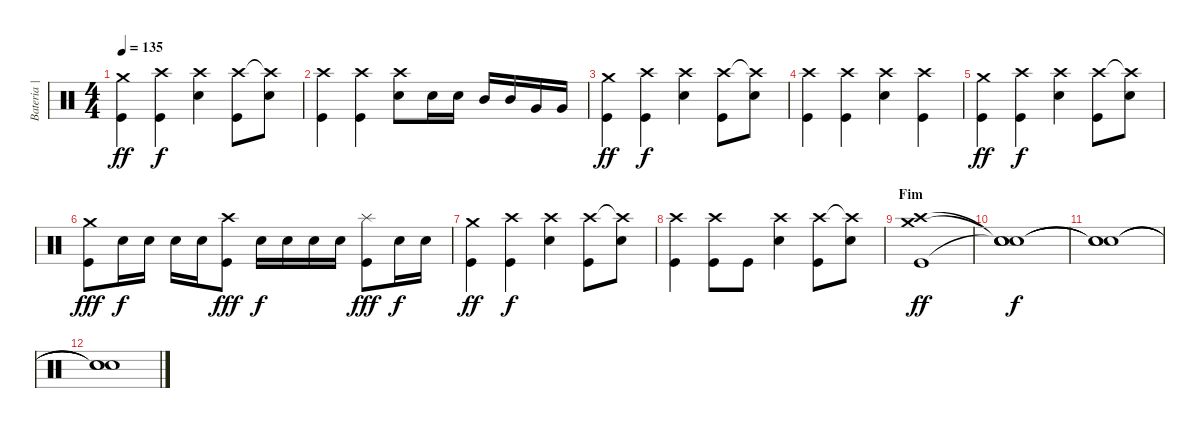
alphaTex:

\track ("Bateria | Bernardo" "Bateria | ") {instrument percussion}
\staff {score}
\articulation defaults
\ts (4 4)
\tempo 135
\clef neutral
\ks c
("Crash medium (hit)" "Kick (hit)").4{dy ff} ("Crash high (hit)" "Kick (hit)").4{dy f} ("Crash high (hit)" "Snare (hit) 2").4 ("Crash high (hit)" "Kick (hit)").8 ("Crash high (hit)"{t} "Snare (hit) 2").8 |
("Crash high (hit)" "Kick (hit)").4 ("Crash high (hit)" "Kick (hit)").4 ("Crash high (hit)" "Snare (hit) 2").8 "Snare (hit) 2".16 "Snare (hit) 2".16 "Mid Tom (hit)".16 "Mid Tom (hit)".16 "Very Low Tom (hit)".16 "Very Low Tom (hit)".16 |
("Crash medium (hit)" "Kick (hit)").4{dy ff} ("Crash high (hit)" "Kick (hit)").4{dy f} ("Crash high (hit)" "Snare (hit) 2").4 ("Crash high (hit)" "Kick (hit)").8 ("Crash high (hit)"{t} "Snare (hit) 2").8 |
("Crash high (hit)" "Kick (hit)").4 ("Crash high (hit)" "Kick (hit)").4 ("Crash high (hit)" "Snare (hit) 2").4 ("Crash high (hit)" "Kick (hit)").4 |
("Crash medium (hit)" "Kick (hit)").4{dy ff} ("Crash high (hit)" "Kick (hit)").4{dy f} ("Crash high (hit)" "Snare (hit) 2").4 ("Crash high (hit)" "Kick (hit)").8 ("Crash high (hit)"{t} "Snare (hit) 2").8 |
("Crash medium (hit)" "Kick (hit)").8{dy fff} "Snare (hit) 2".16{dy f} "Snare (hit) 2".16 "Snare (hit) 2".16 "Snare (hit) 2".16 ("Crash high (hit)" "Kick (hit)").8{dy fff} "Snare (hit) 2".16{dy f} "Snare (hit) 2".16 "Snare (hit) 2".16 "Snare (hit) 2".16 ("Splash (hit)" "Kick (hit)").8{dy fff} "Snare (hit) 2".16{dy f} "Snare (hit) 2".16 |
("Crash medium (hit)" "Kick (hit)").4{dy ff} ("Crash high (hit)" "Kick (hit)").4{dy f} ("Crash high (hit)" "Snare (hit) 2").4 ("Crash high (hit)" "Kick (hit)").8 ("Crash high (hit)"{t} "Snare (hit) 2").8 |
("Crash high (hit)" "Kick (hit)").4 ("Crash high (hit)" "Kick (hit)").8 "Kick (hit)".8 ("Crash high (hit)" "Snare (hit) 2").4 ("Crash high (hit)" "Kick (hit)").8 ("Crash high (hit)"{t} "Snare (hit) 2").8 |
\section ("" "Fim")
("Crash medium (hit)" "Crash high (hit)" "Kick (hit)").1{dy ff} |
("Snare (hit)"{t} "Snare (hit)"{t} "Snare (hit)"{t}).1{dy f volume 0} |
("Snare (hit)"{t} "Snare (hit)"{t} "Snare (hit)"{t}).1 |
("Snare (hit)"{t} "Snare (hit)"{t} "Snare (hit)"{t}).1
